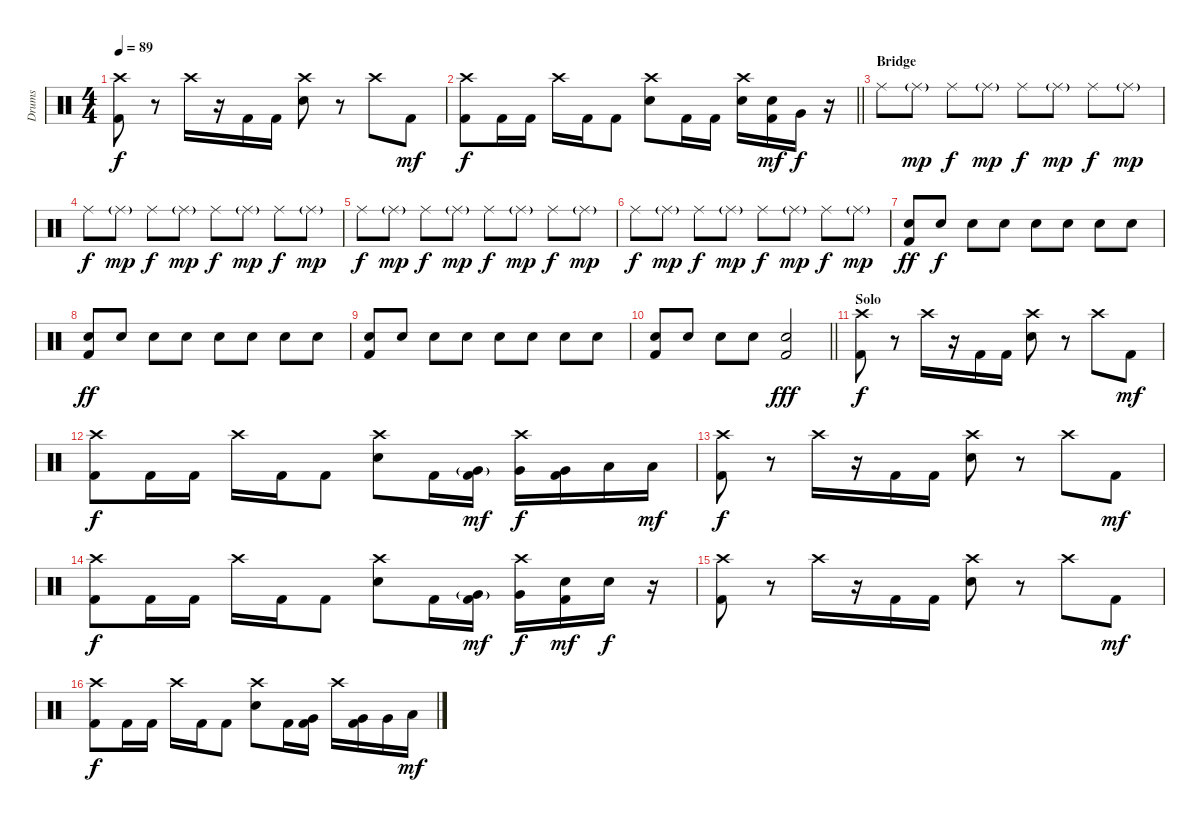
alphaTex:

\track ("Drums" "Drums") {instrument percussion}
\staff {score}
\articulation defaults
\ts (4 4)
\tempo 89
\clef neutral
\ks c
("Crash high (hit)" "Kick (hit) 2").8{dy f} r.8 "Crash high (hit)".16 r.16 "Kick (hit) 2".16 "Kick (hit) 2".16 ("Crash high (hit)" "Electric Snare (hit)").8 r.8 "Crash high (hit)".8 "Kick (hit) 2".8{dy mf} |
\barLineRight lightlight
("Crash high (hit)" "Kick (hit) 2").8{dy f} "Kick (hit) 2".16 "Kick (hit) 2".16 "Crash high (hit)".16 "Kick (hit) 2".16 "Kick (hit) 2".8 ("Crash high (hit)" "Electric Snare (hit)").8 "Kick (hit) 2".16 "Kick (hit) 2".16 ("Crash high (hit)" "Electric Snare (hit)").16 ("Electric Snare (hit)" "Kick (hit) 2").16{dy mf} "Very Low Tom (hit)".16{dy f} r.16 |
\section ("" "Bridge")
"Ride (middle)".8 "Ride (middle)"{g}.8{dy mp} "Ride (middle)".8{dy f} "Ride (middle)"{g}.8{dy mp} "Ride (middle)".8{dy f} "Ride (middle)"{g}.8{dy mp} "Ride (middle)".8{dy f} "Ride (middle)"{g}.8{dy mp} |
"Ride (middle)".8{dy f} "Ride (middle)"{g}.8{dy mp} "Ride (middle)".8{dy f} "Ride (middle)"{g}.8{dy mp} "Ride (middle)".8{dy f} "Ride (middle)"{g}.8{dy mp} "Ride (middle)".8{dy f} "Ride (middle)"{g}.8{dy mp} |
"Ride (middle)".8{dy f} "Ride (middle)"{g}.8{dy mp} "Ride (middle)".8{dy f} "Ride (middle)"{g}.8{dy mp} "Ride (middle)".8{dy f} "Ride (middle)"{g}.8{dy mp} "Ride (middle)".8{dy f} "Ride (middle)"{g}.8{dy mp} |
"Ride (middle)".8{dy f} "Ride (middle)"{g}.8{dy mp} "Ride (middle)".8{dy f} "Ride (middle)"{g}.8{dy mp} "Ride (middle)".8{dy f} "Ride (middle)"{g}.8{dy mp} "Ride (middle)".8{dy f} "Ride (middle)"{g}.8{dy mp} |
("Electric Snare (hit)" "Kick (hit) 2").8{dy ff} "Electric Snare (hit)".8{dy f volume 4} "Electric Snare (hit)".8{volume 7} "Electric Snare (hit)".8 "Electric Snare (hit)".8 "Electric Snare (hit)".8 "Electric Snare (hit)".8 "Electric Snare (hit)".8 |
("Electric Snare (hit)" "Kick (hit) 2").8{dy ff} "Electric Snare (hit)".8 "Electric Snare (hit)".8 "Electric Snare (hit)".8 "Electric Snare (hit)".8 "Electric Snare (hit)".8 "Electric Snare (hit)".8 "Electric Snare (hit)".8 |
("Electric Snare (hit)" "Kick (hit) 2").8{volume 16} "Electric Snare (hit)".8 "Electric Snare (hit)".8 "Electric Snare (hit)".8 "Electric Snare (hit)".8 "Electric Snare (hit)".8 "Electric Snare (hit)".8 "Electric Snare (hit)".8 |
\barLineRight lightlight
("Electric Snare (hit)" "Kick (hit) 2").8 "Electric Snare (hit)".8 "Electric Snare (hit)".8 "Electric Snare (hit)".8 ("Electric Snare (hit)" "Kick (hit) 2").2{dy fff} |
\section ("" "Solo")
("Crash high (hit)" "Kick (hit) 2").8{dy f} r.8 "Crash high (hit)".16 r.16 "Kick (hit) 2".16 "Kick (hit) 2".16 ("Crash high (hit)" "Electric Snare (hit)").8 r.8 "Crash high (hit)".8 "Kick (hit) 2".8{dy mf} |
("Crash high (hit)" "Kick (hit) 2").8{dy f} "Kick (hit) 2".16 "Kick (hit) 2".16 "Crash high (hit)".16 "Kick (hit) 2".16 "Kick (hit) 2".8 ("Crash high (hit)" "Electric Snare (hit)").8 "Kick (hit) 2".16 ("Very Low Tom (hit)"{g} "Kick (hit) 2").16{dy mf} ("Crash high (hit)" "Very Low Tom (hit)").16{dy f} ("Very Low Tom (hit)" "Kick (hit) 2").16 "Low Floor Tom (hit)".16 "Low Floor Tom (hit)".16{dy mf} |
("Crash high (hit)" "Kick (hit) 2").8{dy f} r.8 "Crash high (hit)".16 r.16 "Kick (hit) 2".16 "Kick (hit) 2".16 ("Crash high (hit)" "Electric Snare (hit)").8 r.8 "Crash high (hit)".8 "Kick (hit) 2".8{dy mf} |
("Crash high (hit)" "Kick (hit) 2").8{dy f} "Kick (hit) 2".16 "Kick (hit) 2".16 "Crash high (hit)".16 "Kick (hit) 2".16 "Kick (hit) 2".8 ("Crash high (hit)" "Electric Snare (hit)").8 "Kick (hit) 2".16 ("Very Low Tom (hit)"{g} "Kick (hit) 2").16{dy mf} ("Crash high (hit)" "Very Low Tom (hit)").16{dy f} ("Electric Snare (hit)" "Kick (hit) 2").16{dy mf} "Electric Snare (hit)".16{dy f} r.16 |
("Crash high (hit)" "Kick (hit) 2").8 r.8 "Crash high (hit)".16 r.16 "Kick (hit) 2".16 "Kick (hit) 2".16 ("Crash high (hit)" "Electric Snare (hit)").8 r.8 "Crash high (hit)".8 "Kick (hit) 2".8{dy mf} |
("Crash high (hit)" "Kick (hit) 2").8{dy f} "Kick (hit) 2".16 "Kick (hit) 2".16 "Crash high (hit)".16 "Kick (hit) 2".16 "Kick (hit) 2".8 ("Crash high (hit)" "Electric Snare (hit)").8 "Kick (hit) 2".16 ("Very Low Tom (hit)" "Kick (hit) 2").16 "Crash high (hit)".16 ("Very Low Tom (hit)" "Kick (hit) 2").16 "Very Low Tom (hit)".16 "Low Floor Tom (hit)".16{dy mf}
